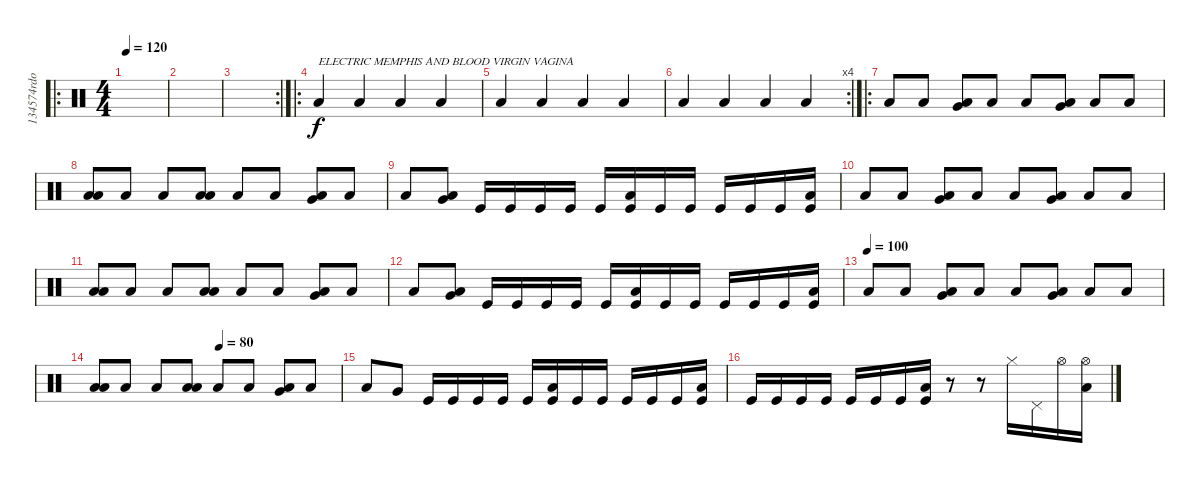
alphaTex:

\track ("134574rdo (seppewankennobi)" "134574rdo ") {instrument percussion}
\staff {score}
\articulation defaults
\ro
\ts (4 4)
\tempo 120
\clef neutral
\ks c
|
|
\rc 2
|
\ro "Low Floor Tom (hit)".4{txt "ELECTRIC MEMPHIS AND BLOOD VIRGIN VAGINA"} "Low Floor Tom (hit)".4 "Low Floor Tom (hit)".4 "Low Floor Tom (hit)".4
|
"Low Floor Tom (hit)".4 "Low Floor Tom (hit)".4 "Low Floor Tom (hit)".4 "Low Floor Tom (hit)".4 |
\rc 4 "Low Floor Tom (hit)".4 "Low Floor Tom (hit)".4 "Low Floor Tom (hit)".4 "Low Floor Tom (hit)".4
|
\ro "Low Floor Tom (hit)".8 "Low Floor Tom (hit)".8
("Very Low Tom (hit)" "Low Floor Tom (hit)").8 "Low Floor Tom (hit)".8 "Low Floor Tom (hit)".8 ("Very Low Tom (hit)" "Low Floor Tom (hit)").8 "Low Floor Tom (hit)".8 "Low Floor Tom (hit)".8 |
("Low Tom (hit)" "Low Floor Tom (hit)").8 "Low Floor Tom (hit)".8 "Low Floor Tom (hit)".8 ("Low Tom (hit)" "Low Floor Tom (hit)").8 "Low Floor Tom (hit)".8 "Low Floor Tom (hit)".8 ("Very Low Tom (hit)" "Low Floor Tom (hit)").8 "Low Floor Tom (hit)".8 |
"Low Floor Tom (hit)".8 ("Very Low Tom (hit)" "Low Floor Tom (hit)").8 "Kick (hit)".16 "Kick (hit)".16 "Kick (hit)".16 "Kick (hit)".16 "Kick (hit)".16 ("Low Floor Tom (hit)" "Kick (hit)").16 "Kick (hit)".16 "Kick (hit)".16 "Kick (hit)".16 "Kick (hit)".16 "Kick (hit)".16 ("Low Floor Tom (hit)" "Kick (hit)").16 |
"Low Floor Tom (hit)".8 "Low Floor Tom (hit)".8 ("Very Low Tom (hit)" "Low Floor Tom (hit)").8 "Low Floor Tom (hit)".8 "Low Floor Tom (hit)".8 ("Very Low Tom (hit)" "Low Floor Tom (hit)").8 "Low Floor Tom (hit)".8 "Low Floor Tom (hit)".8 |
("Low Tom (hit)" "Low Floor Tom (hit)").8 "Low Floor Tom (hit)".8 "Low Floor Tom (hit)".8 ("Low Tom (hit)" "Low Floor Tom (hit)").8 "Low Floor Tom (hit)".8 "Low Floor Tom (hit)".8 ("Very Low Tom (hit)" "Low Floor Tom (hit)").8 "Low Floor Tom (hit)".8 |
"Low Floor Tom (hit)".8 ("Very Low Tom (hit)" "Low Floor Tom (hit)").8 "Kick (hit)".16 "Kick (hit)".16 "Kick (hit)".16 "Kick (hit)".16 "Kick (hit)".16 ("Low Floor Tom (hit)" "Kick (hit)").16 "Kick (hit)".16 "Kick (hit)".16 "Kick (hit)".16 "Kick (hit)".16 "Kick (hit)".16 ("Low Floor Tom (hit)" "Kick (hit)").16 |
\tempo (100)
"Low Floor Tom (hit)".8 "Low Floor Tom (hit)".8 ("Very Low Tom (hit)" "Low Floor Tom (hit)").8 "Low Floor Tom (hit)".8 "Low Floor Tom (hit)".8 ("Very Low Tom (hit)" "Low Floor Tom (hit)").8 "Low Floor Tom (hit)".8 "Low Floor Tom (hit)".8 |
\tempo (80 0.5)
("Low Tom (hit)" "Low Floor Tom (hit)").8 "Low Floor Tom (hit)".8 "Low Floor Tom (hit)".8 ("Low Tom (hit)" "Low Floor Tom (hit)").8 "Low Floor Tom (hit)".8 "Low Floor Tom (hit)".8 ("Very Low Tom (hit)" "Low Floor Tom (hit)").8 "Low Floor Tom (hit)".8 |
"Low Floor Tom (hit)".8 "Very Low Tom (hit)".8 "Kick (hit)".16 "Kick (hit)".16 "Kick (hit)".16 "Kick (hit)".16 "Kick (hit)".16 ("Low Floor Tom (hit)" "Kick (hit)").16 "Kick (hit)".16 "Kick (hit)".16 "Kick (hit)".16 "Kick (hit)".16 "Kick (hit)".16 ("Low Floor Tom (hit)" "Kick (hit)").16 |
"Kick (hit)".16 "Kick (hit)".16 "Kick (hit)".16 "Kick (hit)".16 "Kick (hit)".16 "Kick (hit)".16 "Kick (hit)".16 ("Low Floor Tom (hit)" "Kick (hit)").16 r.8 r.8 "Hi-Hat (closed)".16 "Pedal Hi-Hat (hit)".16 "Hi-Hat (open)".16 ("Hi-Hat (open)" "Low Floor Tom (hit)").16
